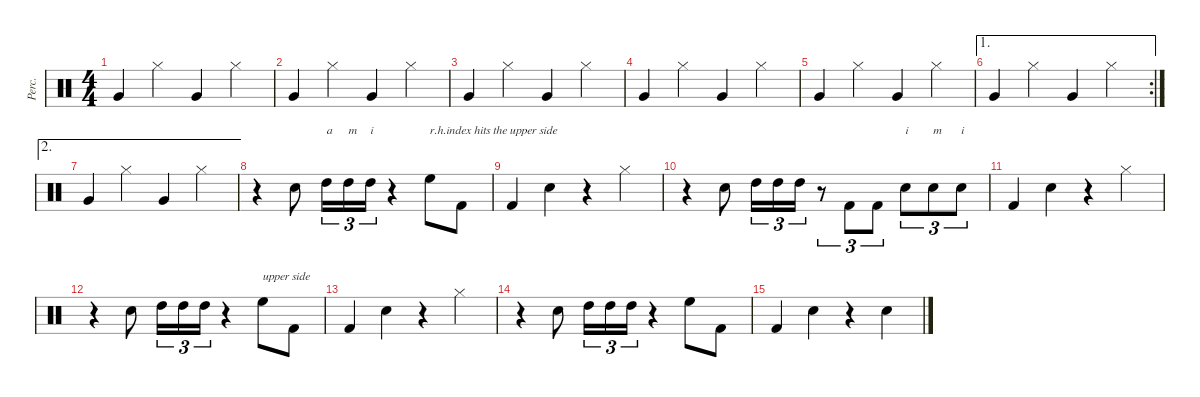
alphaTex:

\defaultSystemsLayout 4
\hideDynamics
\bracketExtendMode groupsimilarinstruments
\otherSystemsTrackNameOrientation horizontal
\track ("Percussions 1" "Perc.") {instrument percussion}
\staff {score}
\articulation defaults
\ts (4 4)
\tempo (120 hide)
\clef neutral
\scale
0.333333
\ks c "Very Low Tom (hit)".4{dy mf beam Up} "Hi-Hat (closed)".4{beam Down} "Very Low Tom (hit)".4{beam Up} "Hi-Hat (closed)".4{beam Down}
|
\scale
0.333333 "Very Low Tom (hit)".4{beam Up} "Hi-Hat (closed)".4{beam Down} "Very Low Tom (hit)".4{beam Up} "Hi-Hat (closed)".4{beam Down} |
\scale
0.333333 "Very Low Tom (hit)".4{beam Up} "Hi-Hat (closed)".4{beam Down} "Very Low Tom (hit)".4{beam Up} "Hi-Hat (closed)".4{beam Down} |
\scale
0.333333 "Very Low Tom (hit)".4{beam Up} "Hi-Hat (closed)".4{beam Down} "Very Low Tom (hit)".4{beam Up} "Hi-Hat (closed)".4{beam Down} |
"Very Low Tom (hit)".4{beam Up} "Hi-Hat (closed)".4{beam Down} "Very Low Tom (hit)".4{beam Up} "Hi-Hat (closed)".4{beam Down} |
\ae 1
\rc 2 "Very Low Tom (hit)".4{beam Up} "Hi-Hat (closed)".4{beam Down} "Very Low Tom (hit)".4{beam Up} "Hi-Hat (closed)".4{beam Down}
|
\ae 2 "Very Low Tom (hit)".4{beam Up} "Hi-Hat (closed)".4{beam Down} "Very Low Tom (hit)".4{beam Up} "Hi-Hat (closed)".4{beam Down}
|
r.4{beam Down} "Snare (hit) 2".8{beam Down} "High Tom (hit)".16{tu (3 2) txt "a" beam Down} "High Tom (hit)".16{tu (3 2) txt "m" beam Down} "High Tom (hit)".16{tu (3 2) txt "i" beam Down} r.4{beam Down} "High Floor Tom (hit)".8{txt "r.h.index hits the upper side" beam Down} "Kick (hit) 2".8{beam Down} |
"Kick (hit) 2".4{beam Up} "Snare (hit) 2".4{beam Down} r.4{beam Down} "Hi-Hat (closed)".4{beam Down} |
r.4{beam Down} "Snare (hit) 2".8{beam Down} "High Tom (hit)".16{tu (3 2) beam Down} "High Tom (hit)".16{tu (3 2) beam Down} "High Tom (hit)".16{tu (3 2) beam Down} r.8{tu (3 2) beam Down} "Kick (hit) 2".8{tu (3 2) beam Up} "Kick (hit) 2".8{tu (3 2) beam Up} "Snare (hit) 2".8{tu (3 2) txt "i" beam Down} "Snare (hit) 2".8{tu (3 2) txt "m" beam Down} "Snare (hit) 2".8{tu (3 2) txt "i" beam Down} |
"Kick (hit) 2".4{beam Up} "Snare (hit) 2".4{beam Down} r.4{beam Down} "Hi-Hat (closed)".4{beam Down} |
r.4{beam Down} "Snare (hit) 2".8{beam Down} "High Tom (hit)".16{tu (3 2) beam Down} "High Tom (hit)".16{tu (3 2) beam Down} "High Tom (hit)".16{tu (3 2) beam Down} r.4{beam Down} "High Floor Tom (hit)".8{txt "upper side" beam Down} "Kick (hit) 2".8{beam Down} |
"Kick (hit) 2".4{beam Up} "Snare (hit) 2".4{beam Down} r.4{beam Down} "Hi-Hat (closed)".4{beam Down} |
r.4{beam Down} "Snare (hit) 2".8{beam Down} "High Tom (hit)".16{tu (3 2) beam Down} "High Tom (hit)".16{tu (3 2) beam Down} "High Tom (hit)".16{tu (3 2) beam Down} r.4{beam Down} "High Floor Tom (hit)".8{beam Down} "Kick (hit) 2".8{beam Down} |
"Kick (hit) 2".4{beam Up} "Snare (hit) 2".4{beam Down} r.4{beam Down} "Snare (hit) 2".4{beam Down}
